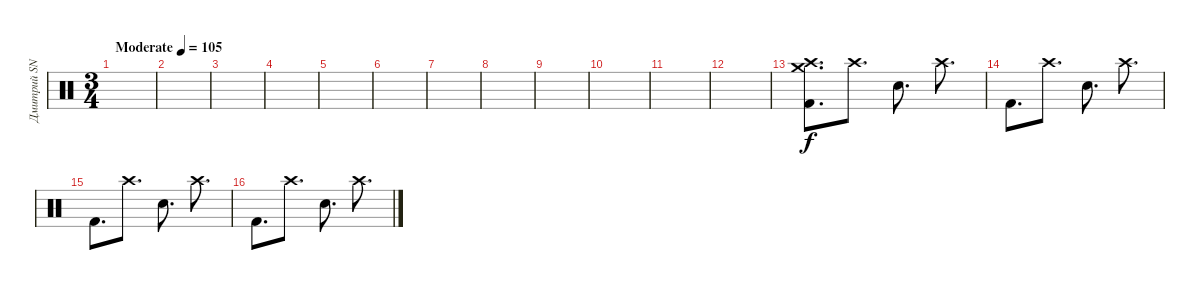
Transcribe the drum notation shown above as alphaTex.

\track ("Дмитрий SNAKE Хакимов" "Дмитрий SN") {instrument percussion}
\staff {score}
\articulation defaults
\ts (3 4)
\tempo (105 "Moderate")
\clef neutral
\ks c
|
|
|
|
|
|
|
|
|
|
|
|
("Crash high (hit)" "Crash medium (hit)" "Kick (hit) 2").8{d} "Crash high (hit)".8{d} "Snare (hit) 2".8{d} "Crash high (hit)".8{d} |
"Kick (hit) 2".8{d} "Crash high (hit)".8{d} "Snare (hit) 2".8{d} "Crash high (hit)".8{d} |
"Kick (hit) 2".8{d} "Crash high (hit)".8{d} "Snare (hit) 2".8{d} "Crash high (hit)".8{d} |
"Kick (hit) 2".8{d} "Crash high (hit)".8{d} "Snare (hit) 2".8{d} "Crash high (hit)".8{d}
